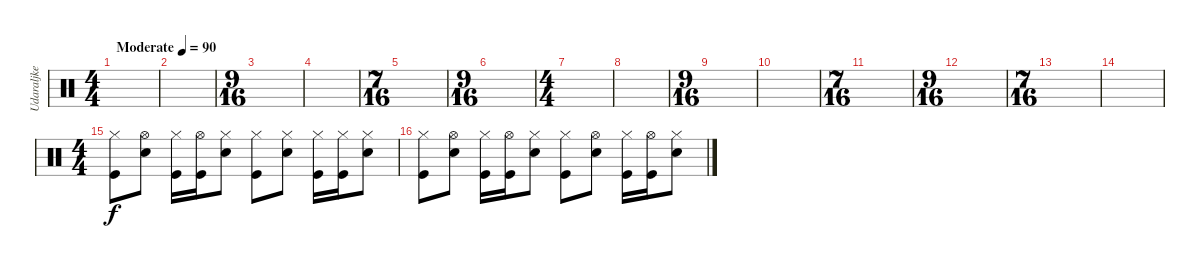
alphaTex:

\track ("Udaraljke" "Udaraljke") {instrument percussion}
\staff {score}
\articulation defaults
\ts (4 4)
\tempo (90 "Moderate")
\clef neutral
\ks c
|
|
\ts (9 16)
|
|
\ts (7 16)
|
\ts (9 16)
|
\ts (4 4)
|
|
\ts (9 16)
|
|
\ts (7 16)
|
\ts (9 16)
|
\ts (7 16)
|
|
\ts (4 4)
("Kick (hit)" "Hi-Hat (closed)").8 ("Snare (hit) 2" "Hi-Hat (open)").8 ("Kick (hit)" "Hi-Hat (closed)").16 ("Kick (hit)" "Hi-Hat (open)").16 ("Snare (hit) 2" "Hi-Hat (closed)").8 ("Kick (hit)" "Hi-Hat (closed)").8 ("Snare (hit) 2" "Hi-Hat (closed)").8 ("Kick (hit)" "Hi-Hat (closed)").16 ("Kick (hit)" "Hi-Hat (closed)").16 ("Snare (hit) 2" "Hi-Hat (closed)").8 |
("Kick (hit)" "Hi-Hat (closed)").8 ("Snare (hit) 2" "Hi-Hat (open)").8 ("Kick (hit)" "Hi-Hat (closed)").16 ("Kick (hit)" "Hi-Hat (open)").16 ("Snare (hit) 2" "Hi-Hat (closed)").8 ("Kick (hit)" "Hi-Hat (closed)").8 ("Snare (hit) 2" "Hi-Hat (open)").8 ("Kick (hit)" "Hi-Hat (closed)").16 ("Kick (hit)" "Hi-Hat (open)").16 ("Snare (hit) 2" "Hi-Hat (closed)").8
